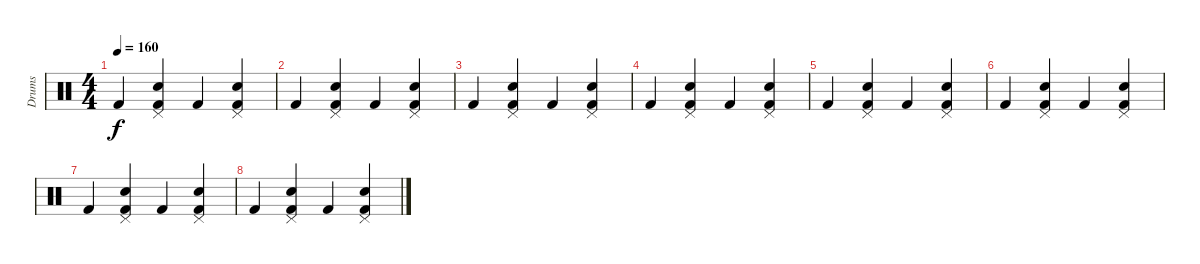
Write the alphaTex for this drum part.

\track ("Drums" "Drums") {instrument percussion}
\staff {score}
\articulation defaults
\ts (4 4)
\tempo 160
\clef neutral
\ks c "Kick (hit) 2".4{dy f}
("Snare (hit) 2" "Pedal Hi-Hat (hit)" "Kick (hit) 2").4 "Kick (hit) 2".4 ("Snare (hit) 2" "Pedal Hi-Hat (hit)" "Kick (hit) 2").4 |
"Kick (hit) 2".4 ("Snare (hit) 2" "Pedal Hi-Hat (hit)" "Kick (hit) 2").4 "Kick (hit) 2".4 ("Snare (hit) 2" "Pedal Hi-Hat (hit)" "Kick (hit) 2").4 |
"Kick (hit) 2".4 ("Snare (hit) 2" "Pedal Hi-Hat (hit)" "Kick (hit) 2").4 "Kick (hit) 2".4 ("Snare (hit) 2" "Pedal Hi-Hat (hit)" "Kick (hit) 2").4 |
"Kick (hit) 2".4 ("Snare (hit) 2" "Pedal Hi-Hat (hit)" "Kick (hit) 2").4 "Kick (hit) 2".4 ("Snare (hit) 2" "Pedal Hi-Hat (hit)" "Kick (hit) 2").4 |
"Kick (hit) 2".4 ("Snare (hit) 2" "Pedal Hi-Hat (hit)" "Kick (hit) 2").4 "Kick (hit) 2".4 ("Snare (hit) 2" "Pedal Hi-Hat (hit)" "Kick (hit) 2").4 |
"Kick (hit) 2".4 ("Snare (hit) 2" "Pedal Hi-Hat (hit)" "Kick (hit) 2").4 "Kick (hit) 2".4 ("Snare (hit) 2" "Pedal Hi-Hat (hit)" "Kick (hit) 2").4 |
"Kick (hit) 2".4 ("Snare (hit) 2" "Pedal Hi-Hat (hit)" "Kick (hit) 2").4 "Kick (hit) 2".4 ("Snare (hit) 2" "Pedal Hi-Hat (hit)" "Kick (hit) 2").4 |
"Kick (hit) 2".4 ("Snare (hit) 2" "Pedal Hi-Hat (hit)" "Kick (hit) 2").4 "Kick (hit) 2".4 ("Snare (hit) 2" "Pedal Hi-Hat (hit)" "Kick (hit) 2").4
